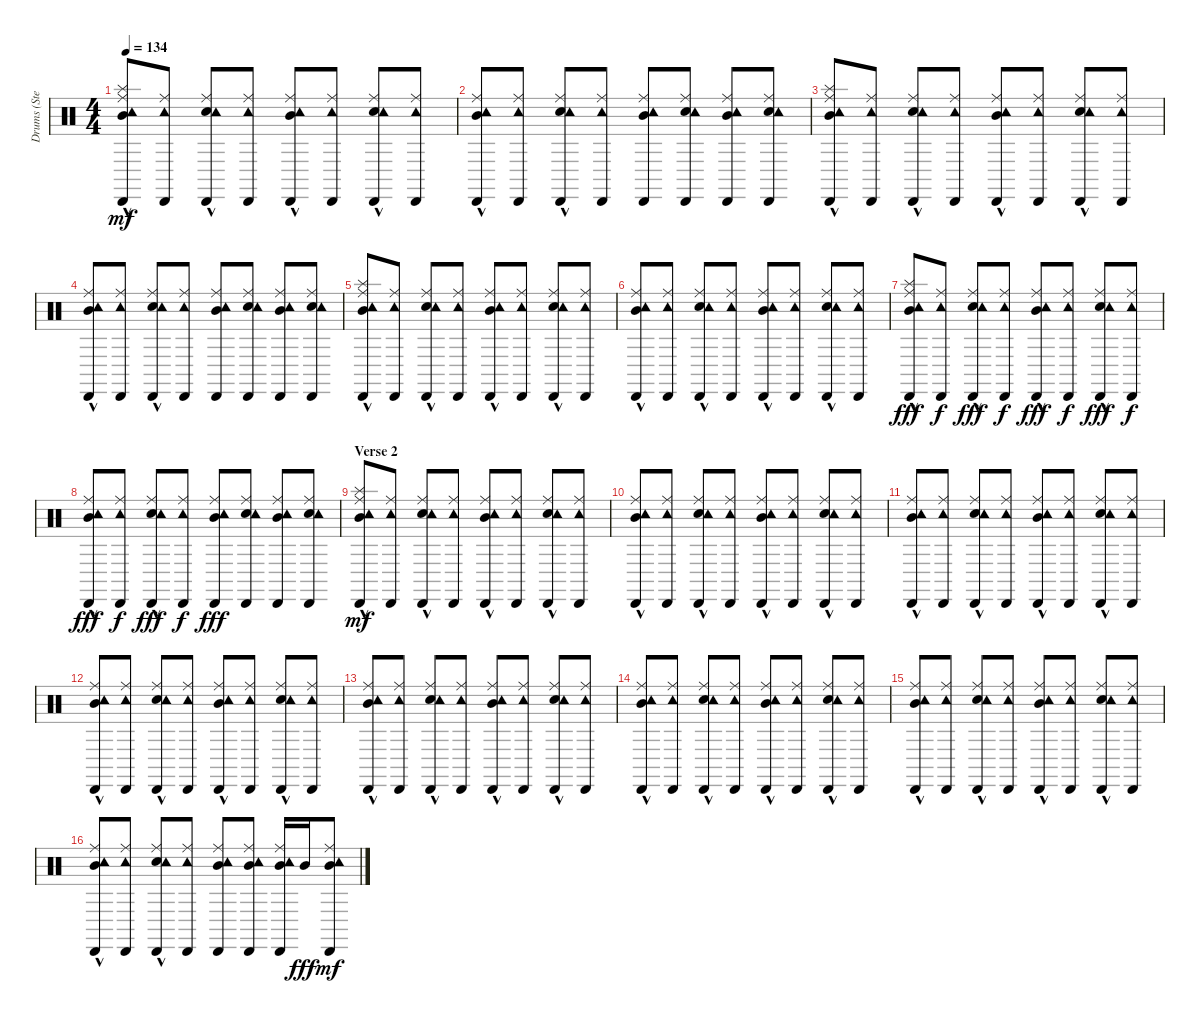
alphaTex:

\track ("Drums (Steven)" "Drums (Ste") {instrument percussion}
\staff {score}
\articulation defaults
\ts (4 4)
\tempo 134
\clef neutral
\ks c
("Mid Tom (hit)"{hac} "Splash (hit)"{hac} "Ride (middle)" "Tambourine (hit)" "Cabasa (hit)").8{dy mf} ("Ride (middle)" "Tambourine (hit)" "Cabasa (hit)").8 ("Electric Snare (hit)"{hac} "Ride (middle)" "Tambourine (hit)" "Cabasa (hit)").8 ("Ride (middle)" "Tambourine (hit)" "Cabasa (hit)").8 ("Mid Tom (hit)"{hac} "Ride (middle)" "Tambourine (hit)" "Cabasa (hit)").8 ("Ride (middle)" "Tambourine (hit)" "Cabasa (hit)").8 ("Electric Snare (hit)"{hac} "Ride (middle)" "Tambourine (hit)" "Cabasa (hit)").8 ("Ride (middle)" "Tambourine (hit)" "Cabasa (hit)").8 |
("Mid Tom (hit)"{hac} "Ride (middle)" "Tambourine (hit)" "Cabasa (hit)").8 ("Ride (middle)" "Tambourine (hit)" "Cabasa (hit)").8 ("Electric Snare (hit)"{hac} "Ride (middle)" "Tambourine (hit)" "Cabasa (hit)").8 ("Ride (middle)" "Tambourine (hit)" "Cabasa (hit)").8 ("Mid Tom (hit)" "Ride (middle)" "Tambourine (hit)" "Cabasa (hit)").8 ("Electric Snare (hit)" "Ride (middle)" "Tambourine (hit)" "Cabasa (hit)").8 ("Mid Tom (hit)" "Ride (middle)" "Tambourine (hit)" "Cabasa (hit)").8 ("Electric Snare (hit)" "Ride (middle)" "Tambourine (hit)" "Cabasa (hit)").8 |
("Mid Tom (hit)"{hac} "Splash (hit)"{hac} "Ride (middle)" "Tambourine (hit)" "Cabasa (hit)").8 ("Ride (middle)" "Tambourine (hit)" "Cabasa (hit)").8 ("Electric Snare (hit)"{hac} "Ride (middle)" "Tambourine (hit)" "Cabasa (hit)").8 ("Ride (middle)" "Tambourine (hit)" "Cabasa (hit)").8 ("Mid Tom (hit)"{hac} "Ride (middle)" "Tambourine (hit)" "Cabasa (hit)").8 ("Ride (middle)" "Tambourine (hit)" "Cabasa (hit)").8 ("Electric Snare (hit)"{hac} "Ride (middle)" "Tambourine (hit)" "Cabasa (hit)").8 ("Ride (middle)" "Tambourine (hit)" "Cabasa (hit)").8 |
("Mid Tom (hit)"{hac} "Ride (middle)" "Tambourine (hit)" "Cabasa (hit)").8 ("Ride (middle)" "Tambourine (hit)" "Cabasa (hit)").8 ("Electric Snare (hit)"{hac} "Ride (middle)" "Tambourine (hit)" "Cabasa (hit)").8 ("Ride (middle)" "Tambourine (hit)" "Cabasa (hit)").8 ("Mid Tom (hit)" "Ride (middle)" "Tambourine (hit)" "Cabasa (hit)").8 ("Electric Snare (hit)" "Ride (middle)" "Tambourine (hit)" "Cabasa (hit)").8 ("Mid Tom (hit)" "Ride (middle)" "Tambourine (hit)" "Cabasa (hit)").8 ("Electric Snare (hit)" "Ride (middle)" "Tambourine (hit)" "Cabasa (hit)").8 |
("Mid Tom (hit)"{hac} "Splash (hit)"{hac} "Ride (middle)" "Tambourine (hit)" "Cabasa (hit)").8 ("Ride (middle)" "Tambourine (hit)" "Cabasa (hit)").8 ("Electric Snare (hit)"{hac} "Ride (middle)" "Tambourine (hit)" "Cabasa (hit)").8 ("Ride (middle)" "Tambourine (hit)" "Cabasa (hit)").8 ("Mid Tom (hit)"{hac} "Ride (middle)" "Tambourine (hit)" "Cabasa (hit)").8 ("Ride (middle)" "Tambourine (hit)" "Cabasa (hit)").8 ("Electric Snare (hit)"{hac} "Ride (middle)" "Tambourine (hit)" "Cabasa (hit)").8 ("Ride (middle)" "Tambourine (hit)" "Cabasa (hit)").8 |
("Mid Tom (hit)"{hac} "Ride (middle)" "Tambourine (hit)" "Cabasa (hit)").8 ("Ride (middle)" "Tambourine (hit)" "Cabasa (hit)").8 ("Electric Snare (hit)"{hac} "Ride (middle)" "Tambourine (hit)" "Cabasa (hit)").8 ("Ride (middle)" "Tambourine (hit)" "Cabasa (hit)").8 ("Mid Tom (hit)"{hac} "Ride (middle)" "Tambourine (hit)" "Cabasa (hit)").8 ("Ride (middle)" "Tambourine (hit)" "Cabasa (hit)").8 ("Electric Snare (hit)"{hac} "Ride (middle)" "Tambourine (hit)" "Cabasa (hit)").8 ("Ride (middle)" "Tambourine (hit)" "Cabasa (hit)").8 |
("Mid Tom (hit)"{hac} "Splash (hit)"{hac} "Ride (middle)" "Tambourine (hit)" "Cabasa (hit)").8{dy fff} ("Ride (middle)" "Tambourine (hit)" "Cabasa (hit)").8{dy f} ("Electric Snare (hit)"{hac} "Ride (middle)" "Tambourine (hit)" "Cabasa (hit)").8{dy fff} ("Ride (middle)" "Tambourine (hit)" "Cabasa (hit)").8{dy f} ("Mid Tom (hit)"{hac} "Ride (middle)" "Tambourine (hit)" "Cabasa (hit)").8{dy fff} ("Ride (middle)" "Tambourine (hit)" "Cabasa (hit)").8{dy f} ("Electric Snare (hit)"{hac} "Ride (middle)" "Tambourine (hit)" "Cabasa (hit)").8{dy fff} ("Ride (middle)" "Tambourine (hit)" "Cabasa (hit)").8{dy f} |
("Mid Tom (hit)"{hac} "Ride (middle)" "Tambourine (hit)" "Cabasa (hit)").8{dy fff} ("Ride (middle)" "Tambourine (hit)" "Cabasa (hit)").8{dy f} ("Electric Snare (hit)"{hac} "Ride (middle)" "Tambourine (hit)" "Cabasa (hit)").8{dy fff} ("Ride (middle)" "Tambourine (hit)" "Cabasa (hit)").8{dy f} ("Mid Tom (hit)" "Ride (middle)" "Tambourine (hit)" "Cabasa (hit)").8{dy fff} ("Electric Snare (hit)" "Ride (middle)" "Tambourine (hit)" "Cabasa (hit)").8 ("Mid Tom (hit)" "Ride (middle)" "Tambourine (hit)" "Cabasa (hit)").8 ("Electric Snare (hit)" "Ride (middle)" "Tambourine (hit)" "Cabasa (hit)").8 |
\section ("" "Verse 2")
("Mid Tom (hit)"{hac} "Splash (hit)"{hac} "Ride (middle)" "Tambourine (hit)" "Cabasa (hit)").8{dy mf} ("Ride (middle)" "Tambourine (hit)" "Cabasa (hit)").8 ("Electric Snare (hit)"{hac} "Ride (middle)" "Tambourine (hit)" "Cabasa (hit)").8 ("Ride (middle)" "Tambourine (hit)" "Cabasa (hit)").8 ("Mid Tom (hit)"{hac} "Ride (middle)" "Tambourine (hit)" "Cabasa (hit)").8 ("Ride (middle)" "Tambourine (hit)" "Cabasa (hit)").8 ("Electric Snare (hit)"{hac} "Ride (middle)" "Tambourine (hit)" "Cabasa (hit)").8 ("Ride (middle)" "Tambourine (hit)" "Cabasa (hit)").8 |
("Mid Tom (hit)"{hac} "Ride (middle)" "Tambourine (hit)" "Cabasa (hit)").8 ("Ride (middle)" "Tambourine (hit)" "Cabasa (hit)").8 ("Electric Snare (hit)"{hac} "Ride (middle)" "Tambourine (hit)" "Cabasa (hit)").8 ("Ride (middle)" "Tambourine (hit)" "Cabasa (hit)").8 ("Mid Tom (hit)"{hac} "Ride (middle)" "Tambourine (hit)" "Cabasa (hit)").8 ("Ride (middle)" "Tambourine (hit)" "Cabasa (hit)").8 ("Electric Snare (hit)"{hac} "Ride (middle)" "Tambourine (hit)" "Cabasa (hit)").8 ("Ride (middle)" "Tambourine (hit)" "Cabasa (hit)").8 |
("Mid Tom (hit)"{hac} "Ride (middle)" "Tambourine (hit)" "Cabasa (hit)").8 ("Ride (middle)" "Tambourine (hit)" "Cabasa (hit)").8 ("Electric Snare (hit)"{hac} "Ride (middle)" "Tambourine (hit)" "Cabasa (hit)").8 ("Ride (middle)" "Tambourine (hit)" "Cabasa (hit)").8 ("Mid Tom (hit)"{hac} "Ride (middle)" "Tambourine (hit)" "Cabasa (hit)").8 ("Ride (middle)" "Tambourine (hit)" "Cabasa (hit)").8 ("Electric Snare (hit)"{hac} "Ride (middle)" "Tambourine (hit)" "Cabasa (hit)").8 ("Ride (middle)" "Tambourine (hit)" "Cabasa (hit)").8 |
("Mid Tom (hit)"{hac} "Ride (middle)" "Tambourine (hit)" "Cabasa (hit)").8 ("Ride (middle)" "Tambourine (hit)" "Cabasa (hit)").8 ("Electric Snare (hit)"{hac} "Ride (middle)" "Tambourine (hit)" "Cabasa (hit)").8 ("Ride (middle)" "Tambourine (hit)" "Cabasa (hit)").8 ("Mid Tom (hit)"{hac} "Ride (middle)" "Tambourine (hit)" "Cabasa (hit)").8 ("Ride (middle)" "Tambourine (hit)" "Cabasa (hit)").8 ("Electric Snare (hit)"{hac} "Ride (middle)" "Tambourine (hit)" "Cabasa (hit)").8 ("Ride (middle)" "Tambourine (hit)" "Cabasa (hit)").8 |
("Mid Tom (hit)"{hac} "Ride (middle)" "Tambourine (hit)" "Cabasa (hit)").8 ("Ride (middle)" "Tambourine (hit)" "Cabasa (hit)").8 ("Electric Snare (hit)"{hac} "Ride (middle)" "Tambourine (hit)" "Cabasa (hit)").8 ("Ride (middle)" "Tambourine (hit)" "Cabasa (hit)").8 ("Mid Tom (hit)"{hac} "Ride (middle)" "Tambourine (hit)" "Cabasa (hit)").8 ("Ride (middle)" "Tambourine (hit)" "Cabasa (hit)").8 ("Electric Snare (hit)"{hac} "Ride (middle)" "Tambourine (hit)" "Cabasa (hit)").8 ("Ride (middle)" "Tambourine (hit)" "Cabasa (hit)").8 |
("Mid Tom (hit)"{hac} "Ride (middle)" "Tambourine (hit)" "Cabasa (hit)").8 ("Ride (middle)" "Tambourine (hit)" "Cabasa (hit)").8 ("Electric Snare (hit)"{hac} "Ride (middle)" "Tambourine (hit)" "Cabasa (hit)").8 ("Ride (middle)" "Tambourine (hit)" "Cabasa (hit)").8 ("Mid Tom (hit)"{hac} "Ride (middle)" "Tambourine (hit)" "Cabasa (hit)").8 ("Ride (middle)" "Tambourine (hit)" "Cabasa (hit)").8 ("Electric Snare (hit)"{hac} "Ride (middle)" "Tambourine (hit)" "Cabasa (hit)").8 ("Ride (middle)" "Tambourine (hit)" "Cabasa (hit)").8 |
("Mid Tom (hit)"{hac} "Ride (middle)" "Tambourine (hit)" "Cabasa (hit)").8 ("Ride (middle)" "Tambourine (hit)" "Cabasa (hit)").8 ("Electric Snare (hit)"{hac} "Ride (middle)" "Tambourine (hit)" "Cabasa (hit)").8 ("Ride (middle)" "Tambourine (hit)" "Cabasa (hit)").8 ("Mid Tom (hit)"{hac} "Ride (middle)" "Tambourine (hit)" "Cabasa (hit)").8 ("Ride (middle)" "Tambourine (hit)" "Cabasa (hit)").8 ("Electric Snare (hit)"{hac} "Ride (middle)" "Tambourine (hit)" "Cabasa (hit)").8 ("Ride (middle)" "Tambourine (hit)" "Cabasa (hit)").8 |
("Mid Tom (hit)"{hac} "Ride (middle)" "Tambourine (hit)" "Cabasa (hit)").8 ("Ride (middle)" "Tambourine (hit)" "Cabasa (hit)").8 ("Electric Snare (hit)"{hac} "Ride (middle)" "Tambourine (hit)" "Cabasa (hit)").8 ("Ride (middle)" "Tambourine (hit)" "Cabasa (hit)").8 ("Mid Tom (hit)" "Ride (middle)" "Tambourine (hit)" "Cabasa (hit)").8 ("Mid Tom (hit)" "Ride (middle)" "Tambourine (hit)" "Cabasa (hit)").8 ("Mid Tom (hit)" "Ride (middle)" "Tambourine (hit)" "Cabasa (hit)").16 "Mid Tom (hit)".16{dy fff} ("Mid Tom (hit)" "Ride (middle)" "Tambourine (hit)" "Cabasa (hit)").8{dy mf}
